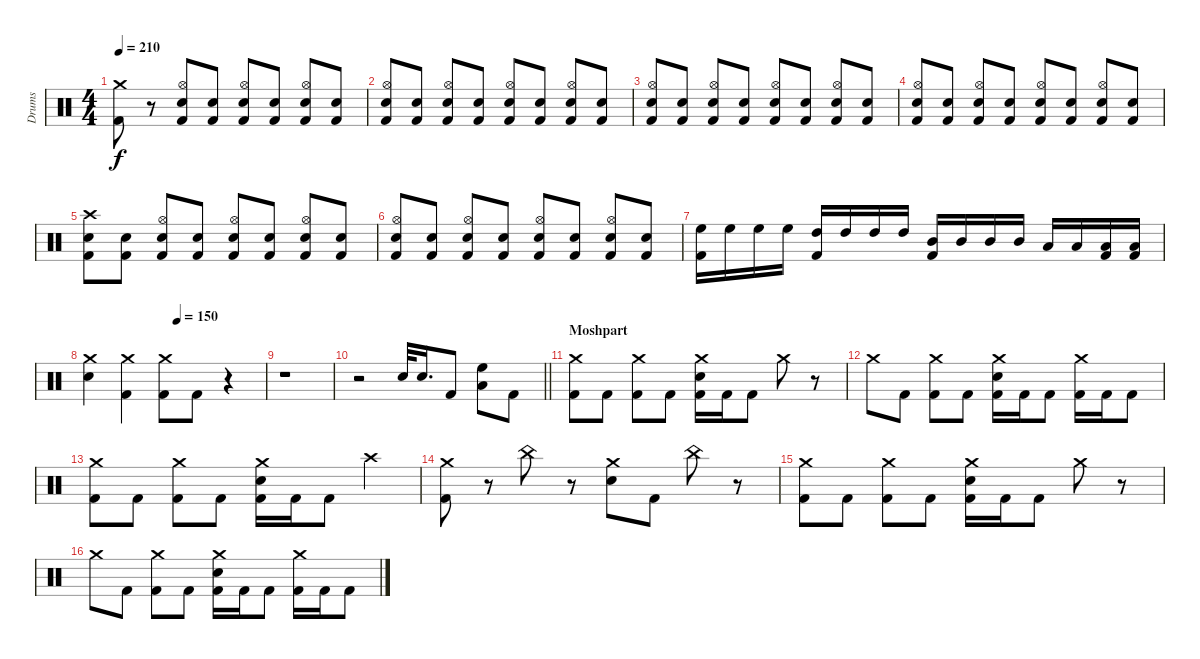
\track ("Drums" "Drums") {instrument percussion}
\staff {score}
\articulation defaults
\ts (4 4)
\tempo 210
\clef neutral
\ks c
("Crash medium (hit)" "Kick (hit) 2").8{dy f} r.8 ("Hi-Hat (open)" "Electric Snare (hit)" "Kick (hit) 2").8 ("Electric Snare (hit)" "Kick (hit) 2").8 ("Hi-Hat (open)" "Electric Snare (hit)" "Kick (hit) 2").8 ("Electric Snare (hit)" "Kick (hit) 2").8 ("Hi-Hat (open)" "Electric Snare (hit)" "Kick (hit) 2").8 ("Electric Snare (hit)" "Kick (hit) 2").8 |
("Hi-Hat (open)" "Electric Snare (hit)" "Kick (hit) 2").8 ("Electric Snare (hit)" "Kick (hit) 2").8 ("Hi-Hat (open)" "Electric Snare (hit)" "Kick (hit) 2").8 ("Electric Snare (hit)" "Kick (hit) 2").8 ("Hi-Hat (open)" "Electric Snare (hit)" "Kick (hit) 2").8 ("Electric Snare (hit)" "Kick (hit) 2").8 ("Hi-Hat (open)" "Electric Snare (hit)" "Kick (hit) 2").8 ("Electric Snare (hit)" "Kick (hit) 2").8 |
("Hi-Hat (open)" "Electric Snare (hit)" "Kick (hit) 2").8 ("Electric Snare (hit)" "Kick (hit) 2").8 ("Hi-Hat (open)" "Electric Snare (hit)" "Kick (hit) 2").8 ("Electric Snare (hit)" "Kick (hit) 2").8 ("Hi-Hat (open)" "Electric Snare (hit)" "Kick (hit) 2").8 ("Electric Snare (hit)" "Kick (hit) 2").8 ("Hi-Hat (open)" "Electric Snare (hit)" "Kick (hit) 2").8 ("Electric Snare (hit)" "Kick (hit) 2").8 |
("Hi-Hat (open)" "Electric Snare (hit)" "Kick (hit) 2").8 ("Electric Snare (hit)" "Kick (hit) 2").8 ("Hi-Hat (open)" "Electric Snare (hit)" "Kick (hit) 2").8 ("Electric Snare (hit)" "Kick (hit) 2").8 ("Hi-Hat (open)" "Electric Snare (hit)" "Kick (hit) 2").8 ("Electric Snare (hit)" "Kick (hit) 2").8 ("Hi-Hat (open)" "Electric Snare (hit)" "Kick (hit) 2").8 ("Electric Snare (hit)" "Kick (hit) 2").8 |
("Crash high (hit)" "Electric Snare (hit)" "Kick (hit) 2").8 ("Electric Snare (hit)" "Kick (hit) 2").8 ("Hi-Hat (open)" "Electric Snare (hit)" "Kick (hit) 2").8 ("Electric Snare (hit)" "Kick (hit) 2").8 ("Hi-Hat (open)" "Electric Snare (hit)" "Kick (hit) 2").8 ("Electric Snare (hit)" "Kick (hit) 2").8 ("Hi-Hat (open)" "Electric Snare (hit)" "Kick (hit) 2").8 ("Electric Snare (hit)" "Kick (hit) 2").8 |
("Hi-Hat (open)" "Electric Snare (hit)" "Kick (hit) 2").8 ("Electric Snare (hit)" "Kick (hit) 2").8 ("Hi-Hat (open)" "Electric Snare (hit)" "Kick (hit) 2").8 ("Electric Snare (hit)" "Kick (hit) 2").8 ("Hi-Hat (open)" "Electric Snare (hit)" "Kick (hit) 2").8 ("Electric Snare (hit)" "Kick (hit) 2").8 ("Hi-Hat (open)" "Electric Snare (hit)" "Kick (hit) 2").8 ("Electric Snare (hit)" "Kick (hit) 2").8 |
("High Floor Tom (hit)" "Kick (hit) 2").16 "High Floor Tom (hit)".16 "High Floor Tom (hit)".16 "High Floor Tom (hit)".16 ("High Tom (hit)" "Kick (hit) 2").16 "High Tom (hit)".16 "High Tom (hit)".16 "High Tom (hit)".16 ("Mid Tom (hit)" "Kick (hit) 2").16 "Mid Tom (hit)".16 "Mid Tom (hit)".16 "Mid Tom (hit)".16 "Low Tom (hit)".16 "Low Tom (hit)".16 ("Low Tom (hit)" "Kick (hit) 2").16 ("Low Tom (hit)" "Kick (hit) 2").16 |
\tempo (150 0.5)
("Crash medium (hit)" "Electric Snare (hit)").4 ("Crash medium (hit)" "Kick (hit) 2").4 ("Crash medium (hit)" "Kick (hit) 2").8 "Kick (hit) 2".8 r.4 |
r.1 |
\barLineRight lightlight
r.2 "Electric Snare (hit)".32 "Electric Snare (hit)".16{d} "Kick (hit) 2".8 ("High Floor Tom (hit)" "Low Tom (hit)").8 "Kick (hit) 2".8 |
\section ("" "Moshpart")
("Crash medium (hit)" "Kick (hit) 2").8 "Kick (hit) 2".8 ("Crash medium (hit)" "Kick (hit) 2").8 "Kick (hit) 2".8 ("Crash medium (hit)" "Electric Snare (hit)" "Kick (hit) 2").16 "Kick (hit) 2".16 "Kick (hit) 2".8 "Crash medium (hit)".8 r.8 |
"Crash medium (hit)".8 "Kick (hit) 2".8 ("Crash medium (hit)" "Kick (hit) 2").8 "Kick (hit) 2".8 ("Crash medium (hit)" "Electric Snare (hit)" "Kick (hit) 2").16 "Kick (hit) 2".16 "Kick (hit) 2".8 ("Crash medium (hit)" "Kick (hit) 2").16 "Kick (hit) 2".16 "Kick (hit) 2".8 |
("Crash medium (hit)" "Kick (hit) 2").8 "Kick (hit) 2".8 ("Crash medium (hit)" "Kick (hit) 2").8 "Kick (hit) 2".8 ("Crash medium (hit)" "Electric Snare (hit)" "Kick (hit) 2").16 "Kick (hit) 2".16 "Kick (hit) 2".8 "Crash high (hit)".4 |
("Crash medium (hit)" "Kick (hit) 2").8 r.8 "China (hit)".8 r.8 ("Crash medium (hit)" "Electric Snare (hit)").8 "Kick (hit) 2".8 "China (hit)".8 r.8 |
("Crash medium (hit)" "Kick (hit) 2").8 "Kick (hit) 2".8 ("Crash medium (hit)" "Kick (hit) 2").8 "Kick (hit) 2".8 ("Crash medium (hit)" "Electric Snare (hit)" "Kick (hit) 2").16 "Kick (hit) 2".16 "Kick (hit) 2".8 "Crash medium (hit)".8 r.8 |
"Crash medium (hit)".8 "Kick (hit) 2".8 ("Crash medium (hit)" "Kick (hit) 2").8 "Kick (hit) 2".8 ("Crash medium (hit)" "Electric Snare (hit)" "Kick (hit) 2").16 "Kick (hit) 2".16 "Kick (hit) 2".8 ("Crash medium (hit)" "Kick (hit) 2").16 "Kick (hit) 2".16 "Kick (hit) 2".8
